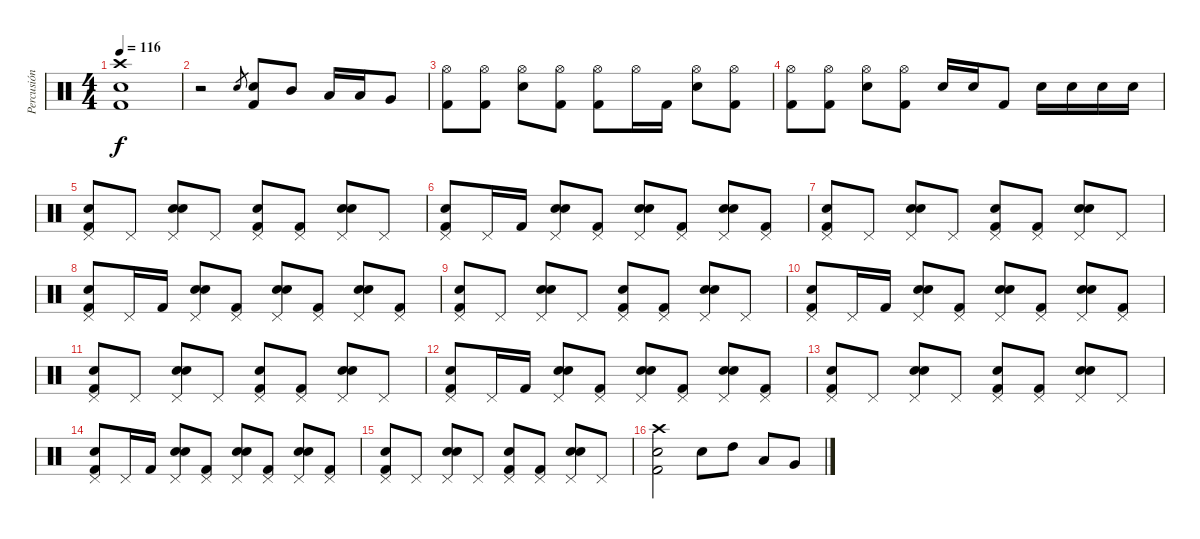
\track ("Percusión" "Percusión") {instrument percussion}
\staff {score}
\articulation defaults
\ts (4 4)
\tempo 116
\clef neutral
\ks c
("Crash high (hit)" "Electric Snare (hit)" "Kick (hit) 2").1{dy f} |
r.2 "Snare (hit) 2".8{gr} ("Snare (hit) 2" "Kick (hit) 2").8 "Mid Tom (hit)".8 "Low Tom (hit)".16 "Low Tom (hit)".16 "Very Low Tom (hit)".8 |
("Hi-Hat (open)" "Kick (hit) 2").8 ("Hi-Hat (open)" "Kick (hit) 2").8 ("Hi-Hat (open)" "Snare (hit) 2").8 ("Hi-Hat (open)" "Kick (hit) 2").8 ("Hi-Hat (open)" "Kick (hit) 2").8 "Hi-Hat (open)".16 "Kick (hit) 2".16 ("Hi-Hat (open)" "Snare (hit) 2").8 ("Hi-Hat (open)" "Kick (hit) 2").8 |
("Hi-Hat (open)" "Kick (hit) 2").8 ("Hi-Hat (open)" "Kick (hit) 2").8 ("Hi-Hat (open)" "Snare (hit) 2").8 ("Hi-Hat (open)" "Kick (hit) 2").8 "Snare (hit) 2".16 "Snare (hit) 2".16 "Kick (hit) 2".8 "Snare (hit) 2".16 "Snare (hit) 2".16 "Snare (hit) 2".16 "Snare (hit) 2".16 |
("Hand Clap (hit)" "Pedal Hi-Hat (hit)" "Kick (hit) 2").8 "Pedal Hi-Hat (hit)".8 ("Hand Clap (hit)" "Pedal Hi-Hat (hit)" "Snare (hit) 2").8 "Pedal Hi-Hat (hit)".8 ("Hand Clap (hit)" "Pedal Hi-Hat (hit)" "Kick (hit) 2").8 ("Pedal Hi-Hat (hit)" "Kick (hit) 2").8 ("Hand Clap (hit)" "Pedal Hi-Hat (hit)" "Snare (hit) 2").8 "Pedal Hi-Hat (hit)".8 |
("Hand Clap (hit)" "Pedal Hi-Hat (hit)" "Kick (hit) 2").8 "Pedal Hi-Hat (hit)".16 "Kick (hit) 2".16 ("Hand Clap (hit)" "Pedal Hi-Hat (hit)" "Snare (hit) 2").8 ("Pedal Hi-Hat (hit)" "Kick (hit) 2").8 ("Hand Clap (hit)" "Pedal Hi-Hat (hit)" "Snare (hit) 2").8 ("Pedal Hi-Hat (hit)" "Kick (hit) 2").8 ("Hand Clap (hit)" "Pedal Hi-Hat (hit)" "Snare (hit) 2").8 ("Pedal Hi-Hat (hit)" "Kick (hit) 2").8 |
("Hand Clap (hit)" "Pedal Hi-Hat (hit)" "Kick (hit) 2").8 "Pedal Hi-Hat (hit)".8 ("Hand Clap (hit)" "Pedal Hi-Hat (hit)" "Snare (hit) 2").8 "Pedal Hi-Hat (hit)".8 ("Hand Clap (hit)" "Pedal Hi-Hat (hit)" "Kick (hit) 2").8 ("Pedal Hi-Hat (hit)" "Kick (hit) 2").8 ("Hand Clap (hit)" "Pedal Hi-Hat (hit)" "Snare (hit) 2").8 "Pedal Hi-Hat (hit)".8 |
("Hand Clap (hit)" "Pedal Hi-Hat (hit)" "Kick (hit) 2").8 "Pedal Hi-Hat (hit)".16 "Kick (hit) 2".16 ("Hand Clap (hit)" "Pedal Hi-Hat (hit)" "Snare (hit) 2").8 ("Pedal Hi-Hat (hit)" "Kick (hit) 2").8 ("Hand Clap (hit)" "Pedal Hi-Hat (hit)" "Snare (hit) 2").8 ("Pedal Hi-Hat (hit)" "Kick (hit) 2").8 ("Hand Clap (hit)" "Pedal Hi-Hat (hit)" "Snare (hit) 2").8 ("Pedal Hi-Hat (hit)" "Kick (hit) 2").8 |
("Hand Clap (hit)" "Pedal Hi-Hat (hit)" "Kick (hit) 2").8 "Pedal Hi-Hat (hit)".8 ("Hand Clap (hit)" "Pedal Hi-Hat (hit)" "Snare (hit) 2").8 "Pedal Hi-Hat (hit)".8 ("Hand Clap (hit)" "Pedal Hi-Hat (hit)" "Kick (hit) 2").8 ("Pedal Hi-Hat (hit)" "Kick (hit) 2").8 ("Hand Clap (hit)" "Pedal Hi-Hat (hit)" "Snare (hit) 2").8 "Pedal Hi-Hat (hit)".8 |
("Hand Clap (hit)" "Pedal Hi-Hat (hit)" "Kick (hit) 2").8 "Pedal Hi-Hat (hit)".16 "Kick (hit) 2".16 ("Hand Clap (hit)" "Pedal Hi-Hat (hit)" "Snare (hit) 2").8 ("Pedal Hi-Hat (hit)" "Kick (hit) 2").8 ("Hand Clap (hit)" "Pedal Hi-Hat (hit)" "Snare (hit) 2").8 ("Pedal Hi-Hat (hit)" "Kick (hit) 2").8 ("Hand Clap (hit)" "Pedal Hi-Hat (hit)" "Snare (hit) 2").8 ("Pedal Hi-Hat (hit)" "Kick (hit) 2").8 |
("Hand Clap (hit)" "Pedal Hi-Hat (hit)" "Kick (hit) 2").8 "Pedal Hi-Hat (hit)".8 ("Hand Clap (hit)" "Pedal Hi-Hat (hit)" "Snare (hit) 2").8 "Pedal Hi-Hat (hit)".8 ("Hand Clap (hit)" "Pedal Hi-Hat (hit)" "Kick (hit) 2").8 ("Pedal Hi-Hat (hit)" "Kick (hit) 2").8 ("Hand Clap (hit)" "Pedal Hi-Hat (hit)" "Snare (hit) 2").8 "Pedal Hi-Hat (hit)".8 |
("Hand Clap (hit)" "Pedal Hi-Hat (hit)" "Kick (hit) 2").8 "Pedal Hi-Hat (hit)".16 "Kick (hit) 2".16 ("Hand Clap (hit)" "Pedal Hi-Hat (hit)" "Snare (hit) 2").8 ("Pedal Hi-Hat (hit)" "Kick (hit) 2").8 ("Hand Clap (hit)" "Pedal Hi-Hat (hit)" "Snare (hit) 2").8 ("Pedal Hi-Hat (hit)" "Kick (hit) 2").8 ("Hand Clap (hit)" "Pedal Hi-Hat (hit)" "Snare (hit) 2").8 ("Pedal Hi-Hat (hit)" "Kick (hit) 2").8 |
("Hand Clap (hit)" "Pedal Hi-Hat (hit)" "Kick (hit) 2").8 "Pedal Hi-Hat (hit)".8 ("Hand Clap (hit)" "Pedal Hi-Hat (hit)" "Snare (hit) 2").8 "Pedal Hi-Hat (hit)".8 ("Hand Clap (hit)" "Pedal Hi-Hat (hit)" "Kick (hit) 2").8 ("Pedal Hi-Hat (hit)" "Kick (hit) 2").8 ("Hand Clap (hit)" "Pedal Hi-Hat (hit)" "Snare (hit) 2").8 "Pedal Hi-Hat (hit)".8 |
("Hand Clap (hit)" "Pedal Hi-Hat (hit)" "Kick (hit) 2").8 "Pedal Hi-Hat (hit)".16 "Kick (hit) 2".16 ("Hand Clap (hit)" "Pedal Hi-Hat (hit)" "Snare (hit) 2").8 ("Pedal Hi-Hat (hit)" "Kick (hit) 2").8 ("Hand Clap (hit)" "Pedal Hi-Hat (hit)" "Snare (hit) 2").8 ("Pedal Hi-Hat (hit)" "Kick (hit) 2").8 ("Hand Clap (hit)" "Pedal Hi-Hat (hit)" "Snare (hit) 2").8 ("Pedal Hi-Hat (hit)" "Kick (hit) 2").8 |
("Hand Clap (hit)" "Pedal Hi-Hat (hit)" "Kick (hit) 2").8 "Pedal Hi-Hat (hit)".8 ("Hand Clap (hit)" "Pedal Hi-Hat (hit)" "Snare (hit) 2").8 "Pedal Hi-Hat (hit)".8 ("Hand Clap (hit)" "Pedal Hi-Hat (hit)" "Kick (hit) 2").8 ("Pedal Hi-Hat (hit)" "Kick (hit) 2").8 ("Hand Clap (hit)" "Pedal Hi-Hat (hit)" "Snare (hit) 2").8 "Pedal Hi-Hat (hit)".8 |
("Crash high (hit)" "Snare (hit) 2" "Kick (hit) 2").2 "Snare (hit) 2".8 "High Tom (hit)".8 "Low Tom (hit)".8 "Very Low Tom (hit)".8
